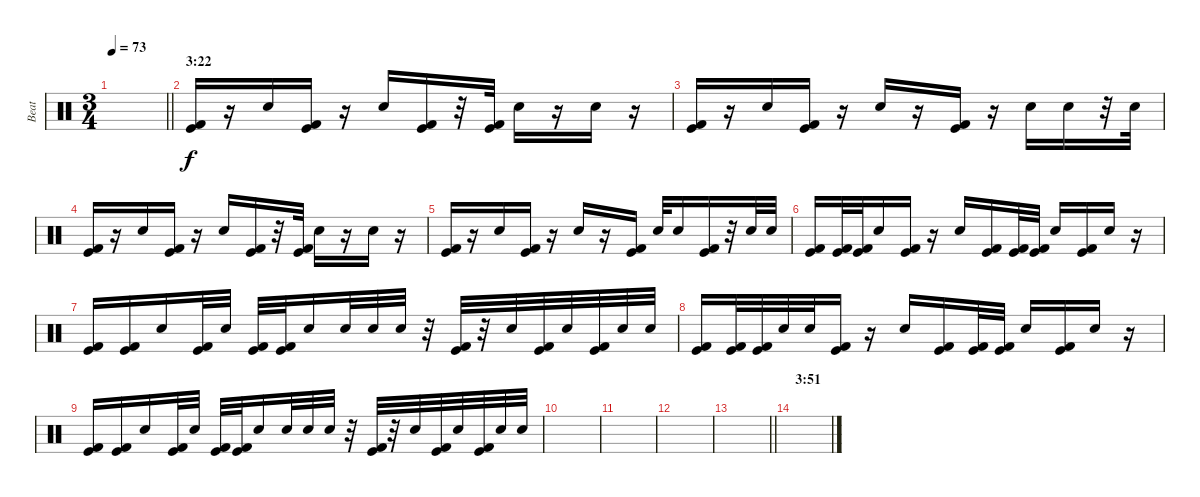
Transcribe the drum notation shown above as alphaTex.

\track ("Beat" "Beat") {instrument percussion}
\staff {score}
\articulation defaults
\ts (3 4)
\tempo 73
\clef neutral
\barLineRight lightlight
\ks c
|
\section ("" "3:22")
("Kick (hit)" "Kick (hit) 2").16{dy f} r.16 "Snare (hit) 2".16 ("Kick (hit)" "Kick (hit) 2").16 r.16 "Snare (hit) 2".16 ("Kick (hit)" "Kick (hit) 2").16 r.32 ("Kick (hit)" "Kick (hit) 2").32 "Snare (hit) 2".16 r.16 "Snare (hit) 2".16 r.16 |
("Kick (hit)" "Kick (hit) 2").16 r.16 "Snare (hit) 2".16 ("Kick (hit)" "Kick (hit) 2").16 r.16 "Snare (hit) 2".16 r.16 ("Kick (hit)" "Kick (hit) 2").16 r.16 "Snare (hit) 2".16 "Snare (hit) 2".16 r.32 "Snare (hit) 2".32 |
("Kick (hit)" "Kick (hit) 2").16 r.16 "Snare (hit) 2".16 ("Kick (hit)" "Kick (hit) 2").16 r.16 "Snare (hit) 2".16 ("Kick (hit)" "Kick (hit) 2").16 r.32 ("Kick (hit)" "Kick (hit) 2").32 "Snare (hit) 2".16 r.16 "Snare (hit) 2".16 r.16 |
("Kick (hit)" "Kick (hit) 2").16 r.16 "Snare (hit) 2".16 ("Kick (hit)" "Kick (hit) 2").16 r.16 "Snare (hit) 2".16 r.16 ("Kick (hit)" "Kick (hit) 2").16 "Snare (hit) 2".32 "Snare (hit) 2".16 ("Kick (hit)" "Kick (hit) 2").16 r.32 "Snare (hit) 2".32 "Snare (hit) 2".32 |
("Kick (hit)" "Kick (hit) 2").16 ("Kick (hit)" "Kick (hit) 2").32 ("Kick (hit)" "Kick (hit) 2").32 "Snare (hit) 2".16 ("Kick (hit)" "Kick (hit) 2").16 r.16 "Snare (hit) 2".16 ("Kick (hit)" "Kick (hit) 2").16 ("Kick (hit)" "Kick (hit) 2").32 ("Kick (hit)" "Kick (hit) 2").32 "Snare (hit) 2".16 ("Kick (hit)" "Kick (hit) 2").16 "Snare (hit) 2".16 r.16 |
("Kick (hit)" "Kick (hit) 2").16 ("Kick (hit)" "Kick (hit) 2").16 "Snare (hit) 2".16 ("Kick (hit)" "Kick (hit) 2").32 "Snare (hit) 2".32 ("Kick (hit)" "Kick (hit) 2").32 ("Kick (hit)" "Kick (hit) 2").32 "Snare (hit) 2".16 "Snare (hit) 2".32 "Snare (hit) 2".32 "Snare (hit) 2".32 r.32 ("Kick (hit)" "Kick (hit) 2").32 r.32 "Snare (hit) 2".32 ("Kick (hit)" "Kick (hit) 2").32 "Snare (hit) 2".32 ("Kick (hit)" "Kick (hit) 2").32 "Snare (hit) 2".32 "Snare (hit) 2".32 |
("Kick (hit)" "Kick (hit) 2").16 ("Kick (hit)" "Kick (hit) 2").32 ("Kick (hit)" "Kick (hit) 2").32 "Snare (hit) 2".32 "Snare (hit) 2".32 ("Kick (hit)" "Kick (hit) 2").16 r.16 "Snare (hit) 2".16 ("Kick (hit)" "Kick (hit) 2").16 ("Kick (hit)" "Kick (hit) 2").32 ("Kick (hit)" "Kick (hit) 2").32 "Snare (hit) 2".16 ("Kick (hit)" "Kick (hit) 2").16 "Snare (hit) 2".16 r.16 |
("Kick (hit)" "Kick (hit) 2").16 ("Kick (hit)" "Kick (hit) 2").16 "Snare (hit) 2".16 ("Kick (hit)" "Kick (hit) 2").32 "Snare (hit) 2".32 ("Kick (hit)" "Kick (hit) 2").32 ("Kick (hit)" "Kick (hit) 2").32 "Snare (hit) 2".16 "Snare (hit) 2".32 "Snare (hit) 2".32 "Snare (hit) 2".32 r.32 ("Kick (hit)" "Kick (hit) 2").32 r.32 "Snare (hit) 2".32 ("Kick (hit)" "Kick (hit) 2").32 "Snare (hit) 2".32 ("Kick (hit)" "Kick (hit) 2").32 "Snare (hit) 2".32 "Snare (hit) 2".32 |
|
|
|
\barLineRight lightlight
|
\section ("" "3:51")
